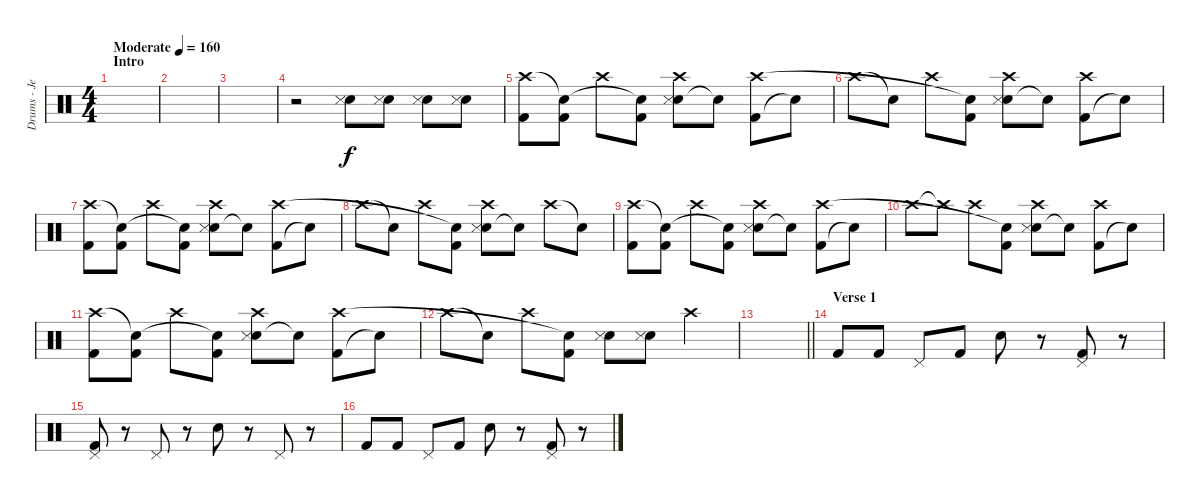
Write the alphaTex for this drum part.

\track ("Drums - Jen Ledger" "Drums - Je") {instrument percussion}
\staff {score}
\articulation defaults
\ts (4 4)
\section ("" "Intro")
\tempo (160 "Moderate")
\clef neutral
\ks c
|
|
|
r.2 ("Snare (hit) 2" "Snare (side stick) 3").8 ("Snare (hit) 2" "Snare (side stick) 3").8 ("Snare (hit) 2" "Snare (side stick) 3").8 ("Snare (hit) 2" "Snare (side stick) 3").8 |
("Kick (hit) 2" "Crash high (hit)").8 ("Kick (hit) 2" "Snare (hit)"{t}).8 "Crash high (hit)".8 ("Kick (hit) 2" "Snare (hit)"{t}).8 ("Snare (hit) 2" "Snare (side stick) 3" "Crash high (hit)").8 "Snare (hit)"{t}.8 ("Kick (hit) 2" "Crash high (hit)").8 "Snare (hit)"{t}.8 |
"Crash high (hit)".8 "Snare (hit)"{t}.8 "Crash high (hit)".8 ("Kick (hit) 2" "Snare (hit)"{t}).8 ("Snare (hit) 2" "Snare (side stick) 3" "Crash high (hit)").8 "Snare (hit)"{t}.8 ("Kick (hit) 2" "Crash high (hit)").8 "Snare (hit)"{t}.8 |
("Kick (hit) 2" "Crash high (hit)").8 ("Kick (hit) 2" "Snare (hit)"{t}).8 "Crash high (hit)".8 ("Kick (hit) 2" "Snare (hit)"{t}).8 ("Snare (hit) 2" "Snare (side stick) 3" "Crash high (hit)").8 "Snare (hit)"{t}.8 ("Kick (hit) 2" "Crash high (hit)").8 "Snare (hit)"{t}.8 |
"Crash high (hit)".8 "Snare (hit)"{t}.8 "Crash high (hit)".8 ("Kick (hit) 2" "Snare (hit)"{t}).8 ("Snare (hit) 2" "Snare (side stick) 3" "Crash high (hit)").8 "Snare (hit)"{t}.8 "Crash high (hit)".8 "Snare (hit)"{t}.8 |
("Kick (hit) 2" "Crash high (hit)").8 ("Kick (hit) 2" "Snare (hit)"{t}).8 "Crash high (hit)".8 ("Kick (hit) 2" "Snare (hit)"{t}).8 ("Snare (hit) 2" "Snare (side stick) 3" "Crash high (hit)").8 "Snare (hit)"{t}.8 ("Kick (hit) 2" "Crash high (hit)").8 "Snare (hit)"{t}.8 |
"Crash high (hit)".8 "Crash high (hit)"{t}.8 "Crash high (hit)".8 ("Kick (hit) 2" "Snare (hit)"{t}).8 ("Snare (hit) 2" "Snare (side stick) 3" "Crash high (hit)").8 "Snare (hit)"{t}.8 ("Kick (hit) 2" "Crash high (hit)").8 "Snare (hit)"{t}.8 |
("Kick (hit) 2" "Crash high (hit)").8 ("Kick (hit) 2" "Snare (hit)"{t}).8 "Crash high (hit)".8 ("Kick (hit) 2" "Snare (hit)"{t}).8 ("Snare (hit) 2" "Snare (side stick) 3" "Crash high (hit)").8 "Snare (hit)"{t}.8 ("Kick (hit) 2" "Crash high (hit)").8 "Snare (hit)"{t}.8 |
"Crash high (hit)".8 "Snare (hit)"{t}.8 "Crash high (hit)".8 ("Kick (hit) 2" "Snare (hit)"{t}).8 ("Snare (hit) 2" "Snare (side stick) 3").8 ("Snare (hit) 2" "Snare (side stick) 3").8 "Crash high (hit)".4 |
\barLineRight lightlight
|
\section ("" "Verse 1")
"Kick (hit) 2".8 "Kick (hit) 2".8 "Pedal Hi-Hat (hit)".8 "Kick (hit) 2".8 "Snare (hit) 2".8 r.8 ("Kick (hit) 2" "Pedal Hi-Hat (hit)").8 r.8 |
("Kick (hit) 2" "Pedal Hi-Hat (hit)").8 r.8 "Pedal Hi-Hat (hit)".8 r.8 "Snare (hit) 2".8 r.8 "Pedal Hi-Hat (hit)".8 r.8 |
"Kick (hit) 2".8 "Kick (hit) 2".8 "Pedal Hi-Hat (hit)".8 "Kick (hit) 2".8 "Snare (hit) 2".8 r.8 ("Kick (hit) 2" "Pedal Hi-Hat (hit)").8 r.8
